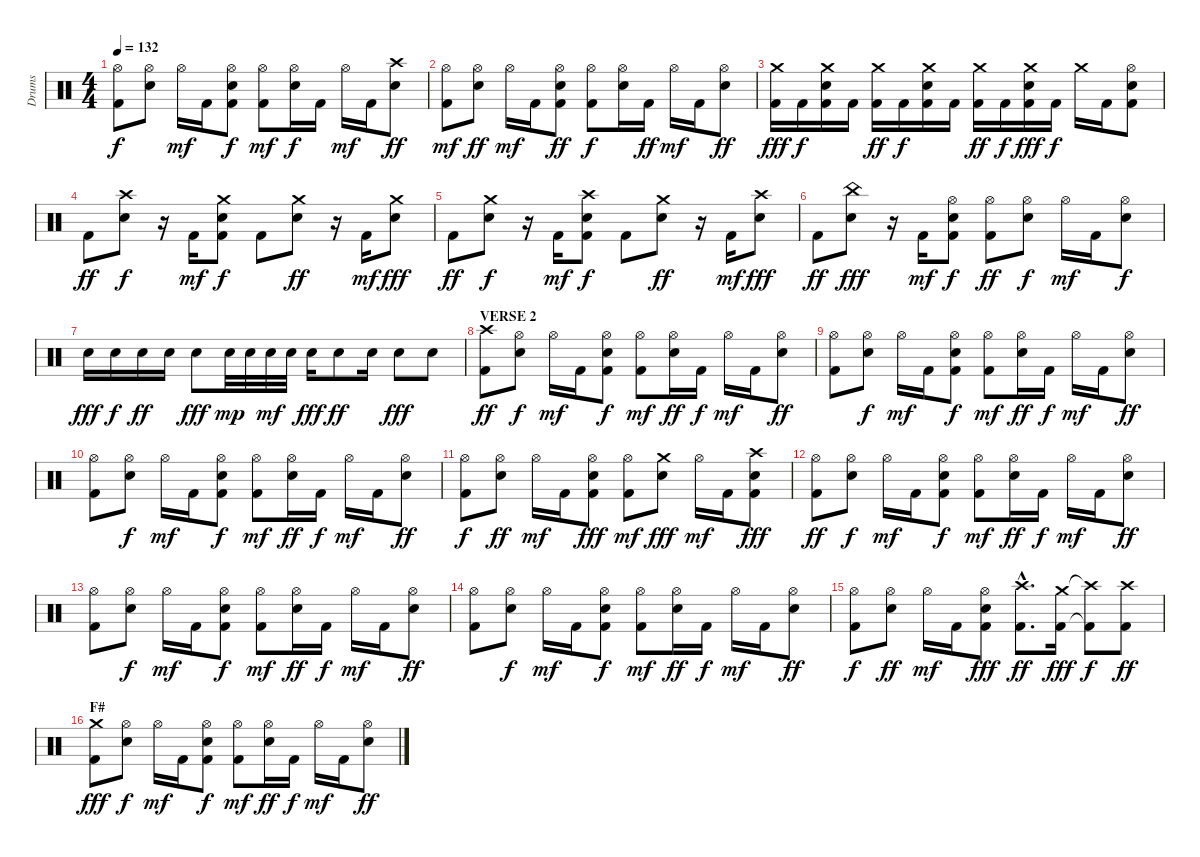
\track ("Drums" "Drums") {instrument percussion}
\staff {score}
\articulation defaults
\ts (4 4)
\tempo 132
\clef neutral
\ks c
("Hi-Hat (open)" "Kick (hit) 2").8{dy f} ("Hi-Hat (open)" "Electric Snare (hit)").8 "Hi-Hat (open)".16{dy mf} "Kick (hit) 2".16 ("Hi-Hat (open)" "Electric Snare (hit)" "Kick (hit) 2").8{dy f} ("Hi-Hat (open)" "Kick (hit) 2").8{dy mf} ("Hi-Hat (open)" "Electric Snare (hit)").16{dy f} "Kick (hit) 2".16 "Hi-Hat (open)".16{dy mf} "Kick (hit) 2".16 ("Crash high (hit)" "Electric Snare (hit)").8{dy ff} |
("Hi-Hat (open)" "Kick (hit) 2").8{dy mf} ("Hi-Hat (open)" "Electric Snare (hit)").8{dy ff} "Hi-Hat (open)".16{dy mf} "Kick (hit) 2".16 ("Hi-Hat (open)" "Electric Snare (hit)" "Kick (hit) 2").8{dy ff} ("Hi-Hat (open)" "Kick (hit) 2").8{dy f} ("Hi-Hat (open)" "Electric Snare (hit)").16 "Kick (hit) 2".16{dy ff} "Hi-Hat (open)".16{dy mf} "Kick (hit) 2".16 ("Hi-Hat (open)" "Electric Snare (hit)").8{dy ff} |
("Crash medium (hit)" "Kick (hit) 2").16{dy fff} "Kick (hit) 2".16{dy f} ("Crash medium (hit)" "Electric Snare (hit)" "Kick (hit) 2").16 "Kick (hit) 2".16 ("Crash medium (hit)" "Kick (hit) 2").16{dy ff} "Kick (hit) 2".16{dy f} ("Crash medium (hit)" "Electric Snare (hit)" "Kick (hit) 2").16 "Kick (hit) 2".16 ("Crash medium (hit)" "Kick (hit) 2").16{dy ff} "Kick (hit) 2".16{dy f} ("Crash medium (hit)" "Electric Snare (hit)" "Kick (hit) 2").16{dy fff} "Kick (hit) 2".16{dy f} "Crash medium (hit)".16 "Kick (hit) 2".16 ("Hi-Hat (open)" "Electric Snare (hit)" "Kick (hit) 2").8 |
"Kick (hit) 2".8{dy ff} ("Crash high (hit)" "Electric Snare (hit)").8{dy f} r.16 "Kick (hit) 2".16{dy mf} ("Crash medium (hit)" "Electric Snare (hit)" "Kick (hit) 2").8{dy f} "Kick (hit) 2".8 ("Crash medium (hit)" "Electric Snare (hit)").8{dy ff} r.16 "Kick (hit) 2".16{dy mf} ("Crash medium (hit)" "Electric Snare (hit)").8{dy fff} |
"Kick (hit) 2".8{dy ff} ("Crash medium (hit)" "Electric Snare (hit)").8{dy f} r.16 "Kick (hit) 2".16{dy mf} ("Crash high (hit)" "Electric Snare (hit)" "Kick (hit) 2").8{dy f} "Kick (hit) 2".8 ("Crash medium (hit)" "Electric Snare (hit)").8{dy ff} r.16 "Kick (hit) 2".16{dy mf} ("Crash high (hit)" "Electric Snare (hit)").8{dy fff} |
"Kick (hit) 2".8{dy ff} ("China (hit)" "Electric Snare (hit)").8{dy fff} r.16 "Kick (hit) 2".16{dy mf} ("Hi-Hat (open)" "Electric Snare (hit)" "Kick (hit) 2").8{dy f} ("Hi-Hat (open)" "Kick (hit) 2").8{dy ff} ("Hi-Hat (open)" "Electric Snare (hit)").8{dy f} "Hi-Hat (open)".16{dy mf} "Kick (hit) 2".16 ("Hi-Hat (open)" "Electric Snare (hit)").8{dy f} |
"Electric Snare (hit)".16{dy fff} "Electric Snare (hit)".16{dy f} "Electric Snare (hit)".16{dy ff} "Electric Snare (hit)".16 "Electric Snare (hit)".8{dy fff} "Electric Snare (hit)".32{dy mp} "Electric Snare (hit)".32 "Electric Snare (hit)".32{dy mf} "Electric Snare (hit)".32 "Electric Snare (hit)".16{dy fff} "Electric Snare (hit)".8{dy ff} "Electric Snare (hit)".16 "Electric Snare (hit)".8{dy fff} "Electric Snare (hit)".8 |
\section ("" "VERSE 2")
("Crash high (hit)" "Kick (hit) 2").8{dy ff} ("Hi-Hat (open)" "Electric Snare (hit)").8{dy f} "Hi-Hat (open)".16{dy mf} "Kick (hit) 2".16 ("Hi-Hat (open)" "Electric Snare (hit)" "Kick (hit) 2").8{dy f} ("Hi-Hat (open)" "Kick (hit) 2").8{dy mf} ("Hi-Hat (open)" "Electric Snare (hit)").16{dy ff} "Kick (hit) 2".16{dy f} "Hi-Hat (open)".16{dy mf} "Kick (hit) 2".16 ("Hi-Hat (open)" "Electric Snare (hit)").8{dy ff} |
("Hi-Hat (open)" "Kick (hit) 2").8 ("Hi-Hat (open)" "Electric Snare (hit)").8{dy f} "Hi-Hat (open)".16{dy mf} "Kick (hit) 2".16 ("Hi-Hat (open)" "Electric Snare (hit)" "Kick (hit) 2").8{dy f} ("Hi-Hat (open)" "Kick (hit) 2").8{dy mf} ("Hi-Hat (open)" "Electric Snare (hit)").16{dy ff} "Kick (hit) 2".16{dy f} "Hi-Hat (open)".16{dy mf} "Kick (hit) 2".16 ("Hi-Hat (open)" "Electric Snare (hit)").8{dy ff} |
("Hi-Hat (open)" "Kick (hit) 2").8 ("Hi-Hat (open)" "Electric Snare (hit)").8{dy f} "Hi-Hat (open)".16{dy mf} "Kick (hit) 2".16 ("Hi-Hat (open)" "Electric Snare (hit)" "Kick (hit) 2").8{dy f} ("Hi-Hat (open)" "Kick (hit) 2").8{dy mf} ("Hi-Hat (open)" "Electric Snare (hit)").16{dy ff} "Kick (hit) 2".16{dy f} "Hi-Hat (open)".16{dy mf} "Kick (hit) 2".16 ("Hi-Hat (open)" "Electric Snare (hit)").8{dy ff} |
("Hi-Hat (open)" "Kick (hit) 2").8{dy f} ("Hi-Hat (open)" "Electric Snare (hit)").8{dy ff} "Hi-Hat (open)".16{dy mf} "Kick (hit) 2".16 ("Hi-Hat (open)" "Electric Snare (hit)" "Kick (hit) 2").8{dy fff} ("Hi-Hat (open)" "Kick (hit) 2").8{dy mf} ("Crash medium (hit)" "Electric Snare (hit)").8{dy fff} "Hi-Hat (open)".16{dy mf} "Kick (hit) 2".16 ("Crash high (hit)" "Electric Snare (hit)" "Kick (hit) 2").8{dy fff} |
("Hi-Hat (open)" "Kick (hit) 2").8{dy ff} ("Hi-Hat (open)" "Electric Snare (hit)").8{dy f} "Hi-Hat (open)".16{dy mf} "Kick (hit) 2".16 ("Hi-Hat (open)" "Electric Snare (hit)" "Kick (hit) 2").8{dy f} ("Hi-Hat (open)" "Kick (hit) 2").8{dy mf} ("Hi-Hat (open)" "Electric Snare (hit)").16{dy ff} "Kick (hit) 2".16{dy f} "Hi-Hat (open)".16{dy mf} "Kick (hit) 2".16 ("Hi-Hat (open)" "Electric Snare (hit)").8{dy ff} |
("Hi-Hat (open)" "Kick (hit) 2").8 ("Hi-Hat (open)" "Electric Snare (hit)").8{dy f} "Hi-Hat (open)".16{dy mf} "Kick (hit) 2".16 ("Hi-Hat (open)" "Electric Snare (hit)" "Kick (hit) 2").8{dy f} ("Hi-Hat (open)" "Kick (hit) 2").8{dy mf} ("Hi-Hat (open)" "Electric Snare (hit)").16{dy ff} "Kick (hit) 2".16{dy f} "Hi-Hat (open)".16{dy mf} "Kick (hit) 2".16 ("Hi-Hat (open)" "Electric Snare (hit)").8{dy ff} |
("Hi-Hat (open)" "Kick (hit) 2").8 ("Hi-Hat (open)" "Electric Snare (hit)").8{dy f} "Hi-Hat (open)".16{dy mf} "Kick (hit) 2".16 ("Hi-Hat (open)" "Electric Snare (hit)" "Kick (hit) 2").8{dy f} ("Hi-Hat (open)" "Kick (hit) 2").8{dy mf} ("Hi-Hat (open)" "Electric Snare (hit)").16{dy ff} "Kick (hit) 2".16{dy f} "Hi-Hat (open)".16{dy mf} "Kick (hit) 2".16 ("Hi-Hat (open)" "Electric Snare (hit)").8{dy ff} |
("Hi-Hat (open)" "Kick (hit) 2").8{dy f} ("Hi-Hat (open)" "Electric Snare (hit)").8{dy ff} "Hi-Hat (open)".16{dy mf} "Kick (hit) 2".16 ("Hi-Hat (open)" "Electric Snare (hit)" "Kick (hit) 2").8{dy fff} ("Crash high (hit)"{hac} "Kick (hit) 2"{hac}).8{d dy ff} ("Crash medium (hit)" "Kick (hit) 2").16{dy fff} ("Crash high (hit)"{t} "Kick (hit) 2"{t}).8{dy f} ("Crash high (hit)" "Kick (hit) 2").8{dy ff} |
\section ("" "F#")
("Crash medium (hit)" "Kick (hit) 2").8{dy fff} ("Hi-Hat (open)" "Electric Snare (hit)").8{dy f} "Hi-Hat (open)".16{dy mf} "Kick (hit) 2".16 ("Hi-Hat (open)" "Electric Snare (hit)" "Kick (hit) 2").8{dy f} ("Hi-Hat (open)" "Kick (hit) 2").8{dy mf} ("Hi-Hat (open)" "Electric Snare (hit)").16{dy ff} "Kick (hit) 2".16{dy f} "Hi-Hat (open)".16{dy mf} "Kick (hit) 2".16 ("Hi-Hat (open)" "Electric Snare (hit)").8{dy ff}
